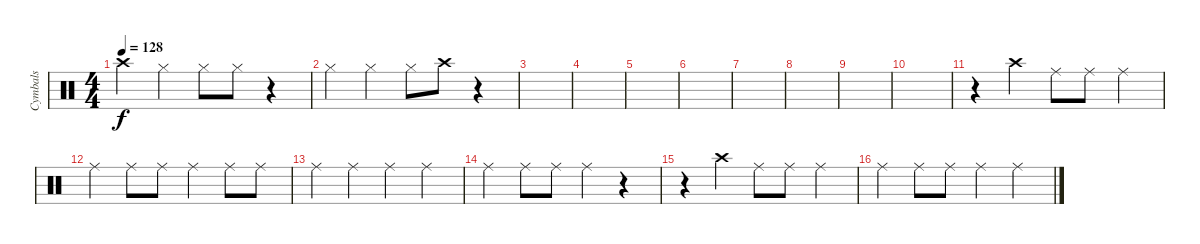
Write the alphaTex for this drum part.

\track ("Cymbals" "Cymbals") {instrument percussion}
\staff {score}
\articulation defaults
\ts (4 4)
\tempo 128
\clef neutral
\ks c "Crash high (hit)".4{dy f} "Hi-Hat (closed)".4 "Hi-Hat (closed)".8 "Hi-Hat (closed)".8
r.4 |
"Hi-Hat (closed)".4 "Hi-Hat (closed)".4 "Hi-Hat (closed)".8 "Crash high (hit)".8 r.4 |
|
|
|
|
|
|
|
|
r.4 "Crash high (hit)".4 "Ride (middle)".8 "Ride (middle)".8 "Ride (middle)".4 |
"Ride (middle)".4 "Ride (middle)".8 "Ride (middle)".8 "Ride (middle)".4 "Ride (middle)".8 "Ride (middle)".8 |
"Ride (middle)".4 "Ride (middle)".4 "Ride (middle)".4 "Ride (middle)".4 |
"Ride (middle)".4 "Ride (middle)".8 "Ride (middle)".8 "Ride (middle)".4 r.4 |
r.4 "Crash high (hit)".4 "Ride (middle)".8 "Ride (middle)".8 "Ride (middle)".4 |
"Ride (middle)".4 "Ride (middle)".8 "Ride (middle)".8 "Ride (middle)".4 "Ride (middle)".4
